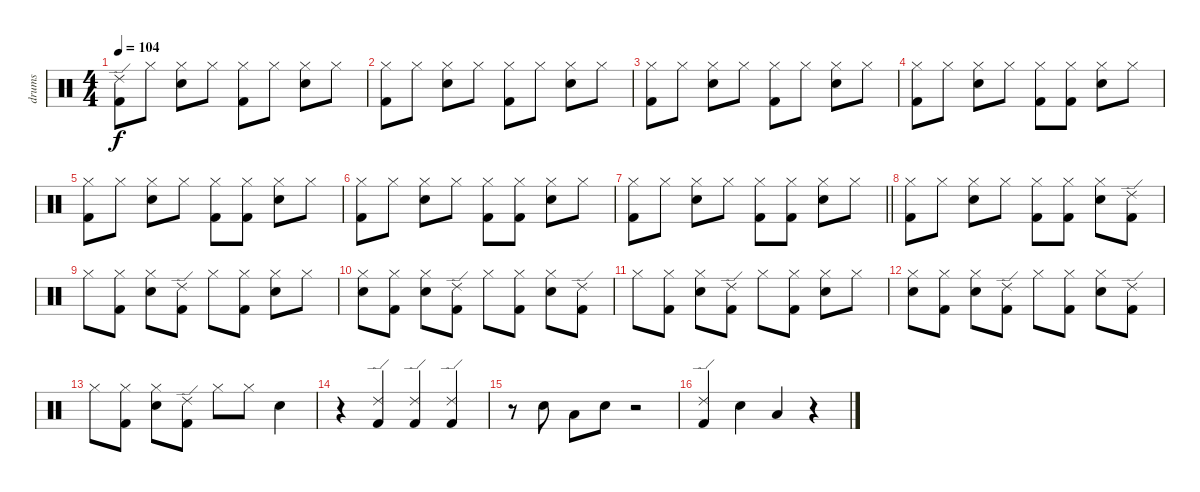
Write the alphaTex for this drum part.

\track ("drums" "drums") {instrument percussion}
\staff {score}
\articulation defaults
\ts (4 4)
\tempo 104
\clef neutral
\ks c
("Kick (hit) 2" "Ride (edge) 2").8{dy f} "Hi-Hat (closed)".8 ("Hi-Hat (closed)" "Snare (hit) 2").8 "Hi-Hat (closed)".8 ("Hi-Hat (closed)" "Kick (hit) 2").8 "Hi-Hat (closed)".8 ("Hi-Hat (closed)" "Snare (hit) 2").8 "Hi-Hat (closed)".8 |
("Hi-Hat (closed)" "Kick (hit) 2").8 "Hi-Hat (closed)".8 ("Hi-Hat (closed)" "Snare (hit) 2").8 "Hi-Hat (closed)".8 ("Hi-Hat (closed)" "Kick (hit) 2").8 "Hi-Hat (closed)".8 ("Hi-Hat (closed)" "Snare (hit) 2").8 "Hi-Hat (closed)".8 |
("Hi-Hat (closed)" "Kick (hit) 2").8 "Hi-Hat (closed)".8 ("Hi-Hat (closed)" "Snare (hit) 2").8 "Hi-Hat (closed)".8 ("Hi-Hat (closed)" "Kick (hit) 2").8 "Hi-Hat (closed)".8 ("Hi-Hat (closed)" "Snare (hit) 2").8 "Hi-Hat (closed)".8 |
("Hi-Hat (closed)" "Kick (hit) 2").8 "Hi-Hat (closed)".8 ("Hi-Hat (closed)" "Snare (hit) 2").8 "Hi-Hat (closed)".8 ("Hi-Hat (closed)" "Kick (hit) 2").8 ("Hi-Hat (closed)" "Kick (hit) 2").8 ("Hi-Hat (closed)" "Snare (hit) 2").8 "Hi-Hat (closed)".8 |
("Hi-Hat (closed)" "Kick (hit) 2").8 "Hi-Hat (closed)".8 ("Hi-Hat (closed)" "Snare (hit) 2").8 "Hi-Hat (closed)".8 ("Hi-Hat (closed)" "Kick (hit) 2").8 ("Hi-Hat (closed)" "Kick (hit) 2").8 ("Hi-Hat (closed)" "Snare (hit) 2").8 "Hi-Hat (closed)".8 |
("Hi-Hat (closed)" "Kick (hit) 2").8 "Hi-Hat (closed)".8 ("Hi-Hat (closed)" "Snare (hit) 2").8 "Hi-Hat (closed)".8 ("Hi-Hat (closed)" "Kick (hit) 2").8 ("Hi-Hat (closed)" "Kick (hit) 2").8 ("Hi-Hat (closed)" "Snare (hit) 2").8 "Hi-Hat (closed)".8 |
\barLineRight lightlight
("Hi-Hat (closed)" "Kick (hit) 2").8 "Hi-Hat (closed)".8 ("Hi-Hat (closed)" "Snare (hit) 2").8 "Hi-Hat (closed)".8 ("Hi-Hat (closed)" "Kick (hit) 2").8 ("Hi-Hat (closed)" "Kick (hit) 2").8 ("Hi-Hat (closed)" "Snare (hit) 2").8 "Hi-Hat (closed)".8 |
("Hi-Hat (closed)" "Kick (hit) 2").8 "Hi-Hat (closed)".8 ("Hi-Hat (closed)" "Snare (hit) 2").8 "Hi-Hat (closed)".8 ("Hi-Hat (closed)" "Kick (hit) 2").8 ("Hi-Hat (closed)" "Kick (hit) 2").8 ("Hi-Hat (closed)" "Snare (hit) 2").8 ("Kick (hit) 2" "Ride (edge) 2").8 |
"Hi-Hat (closed)".8 ("Hi-Hat (closed)" "Kick (hit) 2").8 ("Hi-Hat (closed)" "Snare (hit) 2").8 ("Kick (hit) 2" "Ride (edge) 2").8 "Hi-Hat (closed)".8 ("Hi-Hat (closed)" "Kick (hit) 2").8 ("Hi-Hat (closed)" "Snare (hit) 2").8 "Hi-Hat (closed)".8 |
("Hi-Hat (closed)" "Snare (hit) 2").8 ("Hi-Hat (closed)" "Kick (hit) 2").8 ("Hi-Hat (closed)" "Snare (hit) 2").8 ("Kick (hit) 2" "Ride (edge) 2").8 "Hi-Hat (closed)".8 ("Hi-Hat (closed)" "Kick (hit) 2").8 ("Hi-Hat (closed)" "Snare (hit) 2").8 ("Kick (hit) 2" "Ride (edge) 2").8 |
"Hi-Hat (closed)".8 ("Hi-Hat (closed)" "Kick (hit) 2").8 ("Hi-Hat (closed)" "Snare (hit) 2").8 ("Kick (hit) 2" "Ride (edge) 2").8 "Hi-Hat (closed)".8 ("Hi-Hat (closed)" "Kick (hit) 2").8 ("Hi-Hat (closed)" "Snare (hit) 2").8 "Hi-Hat (closed)".8 |
("Hi-Hat (closed)" "Snare (hit) 2").8 ("Hi-Hat (closed)" "Kick (hit) 2").8 ("Hi-Hat (closed)" "Snare (hit) 2").8 ("Kick (hit) 2" "Ride (edge) 2").8 "Hi-Hat (closed)".8 ("Hi-Hat (closed)" "Kick (hit) 2").8 ("Hi-Hat (closed)" "Snare (hit) 2").8 ("Kick (hit) 2" "Ride (edge) 2").8 |
"Hi-Hat (closed)".8 ("Hi-Hat (closed)" "Kick (hit) 2").8 ("Hi-Hat (closed)" "Snare (hit) 2").8 ("Kick (hit) 2" "Ride (edge) 2").8 "Hi-Hat (closed)".8 "Hi-Hat (closed)".8 "Snare (hit) 2".4 |
r.4 ("Kick (hit) 2" "Ride (edge) 2").4 ("Kick (hit) 2" "Ride (edge) 2").4 ("Kick (hit) 2" "Ride (edge) 2").4 |
r.8 "Snare (hit) 2".8 "Low Tom (hit)".8 "Snare (hit) 2".8 r.2 |
("Kick (hit) 2" "Ride (edge) 2").4 "Snare (hit) 2".4 "Low Floor Tom (hit)".4 r.4
